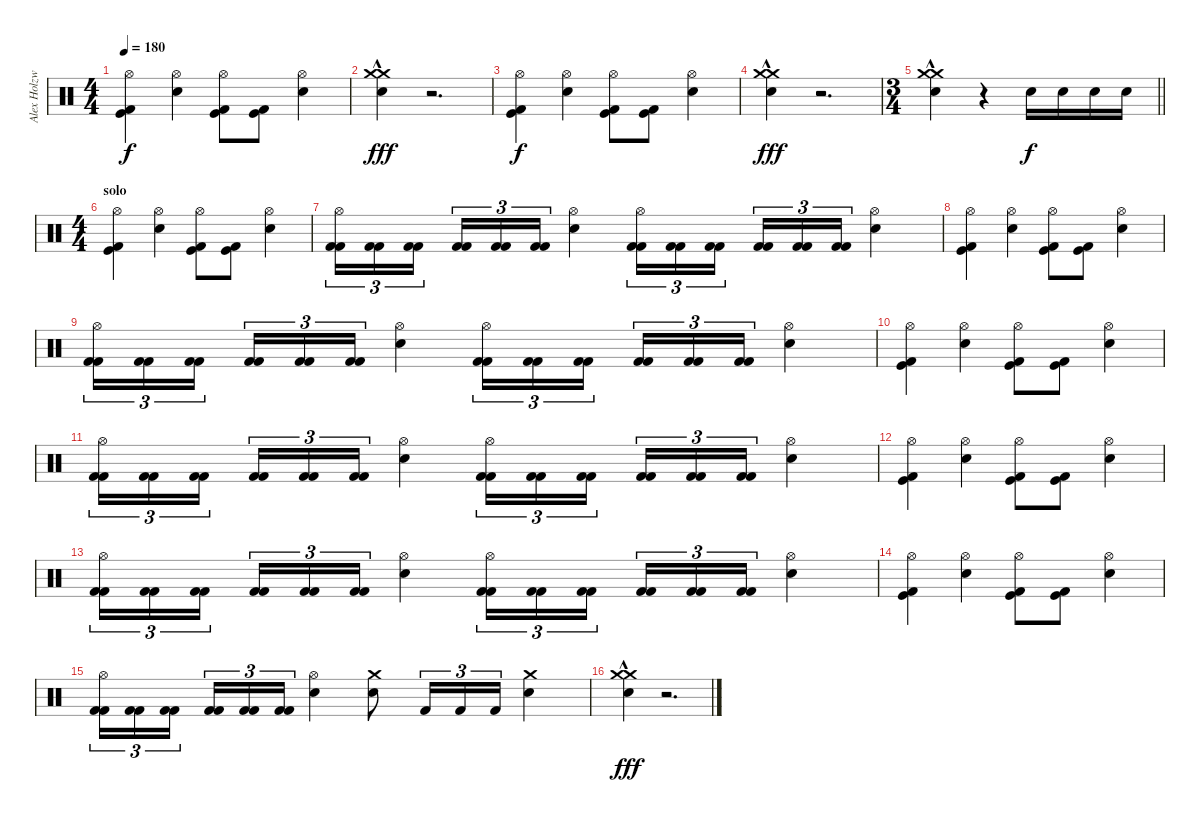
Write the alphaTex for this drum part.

\track ("Alex Holzwarth" "Alex Holzw") {instrument percussion}
\staff {score}
\articulation defaults
\ts (4 4)
\tempo 180
\clef neutral
\ks c
("Kick (hit)" "Kick (hit) 2" "Hi-Hat (open)").4{dy f volume 16} ("Snare (hit) 2" "Hi-Hat (open)").4 ("Kick (hit)" "Kick (hit) 2" "Hi-Hat (open)").8 ("Kick (hit)" "Kick (hit) 2").8 ("Snare (hit) 2" "Hi-Hat (open)").4 |
("Crash medium (hit)"{hac} "Snare (hit) 2" "Crash medium (hit)"{hac}).4{dy fff volume 16} r.2{d volume 0} |
("Kick (hit)" "Kick (hit) 2" "Hi-Hat (open)").4{dy f volume 16} ("Snare (hit) 2" "Hi-Hat (open)").4 ("Kick (hit)" "Kick (hit) 2" "Hi-Hat (open)").8 ("Kick (hit)" "Kick (hit) 2").8 ("Snare (hit) 2" "Hi-Hat (open)").4 |
("Crash medium (hit)"{hac} "Snare (hit) 2" "Crash medium (hit)"{hac}).4{dy fff volume 16} r.2{d volume 0} |
\ts (3 4)
\barLineRight lightlight
("Crash medium (hit)"{hac} "Snare (hit) 2" "Crash medium (hit)"{hac}).4{volume 16} r.4{volume 0} "Snare (hit) 2".16{dy f volume 16} "Snare (hit) 2".16 "Snare (hit) 2".16 "Snare (hit) 2".16 |
\ts (4 4)
\section ("" "solo")
("Kick (hit)" "Kick (hit) 2" "Hi-Hat (open)").4{volume 16} ("Snare (hit) 2" "Hi-Hat (open)").4 ("Kick (hit)" "Kick (hit) 2" "Hi-Hat (open)").8 ("Kick (hit)" "Kick (hit) 2").8 ("Snare (hit) 2" "Hi-Hat (open)").4 |
("Kick (hit) 2" "Kick (hit) 2" "Hi-Hat (open)").16{tu (3 2)} ("Kick (hit) 2" "Kick (hit) 2").16{tu (3 2)} ("Kick (hit) 2" "Kick (hit) 2").16{tu (3 2) beam splitsecondary} ("Kick (hit) 2" "Kick (hit) 2").16{tu (3 2)} ("Kick (hit) 2" "Kick (hit) 2").16{tu (3 2)} ("Kick (hit) 2" "Kick (hit) 2").16{tu (3 2)} ("Snare (hit) 2" "Hi-Hat (open)").4 ("Kick (hit) 2" "Kick (hit) 2" "Hi-Hat (open)").16{tu (3 2)} ("Kick (hit) 2" "Kick (hit) 2").16{tu (3 2)} ("Kick (hit) 2" "Kick (hit) 2").16{tu (3 2) beam splitsecondary} ("Kick (hit) 2" "Kick (hit) 2").16{tu (3 2)} ("Kick (hit) 2" "Kick (hit) 2").16{tu (3 2)} ("Kick (hit) 2" "Kick (hit) 2").16{tu (3 2)} ("Snare (hit) 2" "Hi-Hat (open)").4 |
("Kick (hit)" "Kick (hit) 2" "Hi-Hat (open)").4{volume 16} ("Snare (hit) 2" "Hi-Hat (open)").4 ("Kick (hit)" "Kick (hit) 2" "Hi-Hat (open)").8 ("Kick (hit)" "Kick (hit) 2").8 ("Snare (hit) 2" "Hi-Hat (open)").4 |
("Kick (hit) 2" "Kick (hit) 2" "Hi-Hat (open)").16{tu (3 2)} ("Kick (hit) 2" "Kick (hit) 2").16{tu (3 2)} ("Kick (hit) 2" "Kick (hit) 2").16{tu (3 2) beam splitsecondary} ("Kick (hit) 2" "Kick (hit) 2").16{tu (3 2)} ("Kick (hit) 2" "Kick (hit) 2").16{tu (3 2)} ("Kick (hit) 2" "Kick (hit) 2").16{tu (3 2)} ("Snare (hit) 2" "Hi-Hat (open)").4 ("Kick (hit) 2" "Kick (hit) 2" "Hi-Hat (open)").16{tu (3 2)} ("Kick (hit) 2" "Kick (hit) 2").16{tu (3 2)} ("Kick (hit) 2" "Kick (hit) 2").16{tu (3 2) beam splitsecondary} ("Kick (hit) 2" "Kick (hit) 2").16{tu (3 2)} ("Kick (hit) 2" "Kick (hit) 2").16{tu (3 2)} ("Kick (hit) 2" "Kick (hit) 2").16{tu (3 2)} ("Snare (hit) 2" "Hi-Hat (open)").4 |
("Kick (hit)" "Kick (hit) 2" "Hi-Hat (open)").4{volume 16} ("Snare (hit) 2" "Hi-Hat (open)").4 ("Kick (hit)" "Kick (hit) 2" "Hi-Hat (open)").8 ("Kick (hit)" "Kick (hit) 2").8 ("Snare (hit) 2" "Hi-Hat (open)").4 |
("Kick (hit) 2" "Kick (hit) 2" "Hi-Hat (open)").16{tu (3 2)} ("Kick (hit) 2" "Kick (hit) 2").16{tu (3 2)} ("Kick (hit) 2" "Kick (hit) 2").16{tu (3 2) beam splitsecondary} ("Kick (hit) 2" "Kick (hit) 2").16{tu (3 2)} ("Kick (hit) 2" "Kick (hit) 2").16{tu (3 2)} ("Kick (hit) 2" "Kick (hit) 2").16{tu (3 2)} ("Snare (hit) 2" "Hi-Hat (open)").4 ("Kick (hit) 2" "Kick (hit) 2" "Hi-Hat (open)").16{tu (3 2)} ("Kick (hit) 2" "Kick (hit) 2").16{tu (3 2)} ("Kick (hit) 2" "Kick (hit) 2").16{tu (3 2) beam splitsecondary} ("Kick (hit) 2" "Kick (hit) 2").16{tu (3 2)} ("Kick (hit) 2" "Kick (hit) 2").16{tu (3 2)} ("Kick (hit) 2" "Kick (hit) 2").16{tu (3 2)} ("Snare (hit) 2" "Hi-Hat (open)").4 |
("Kick (hit)" "Kick (hit) 2" "Hi-Hat (open)").4{volume 16} ("Snare (hit) 2" "Hi-Hat (open)").4 ("Kick (hit)" "Kick (hit) 2" "Hi-Hat (open)").8 ("Kick (hit)" "Kick (hit) 2").8 ("Snare (hit) 2" "Hi-Hat (open)").4 |
("Kick (hit) 2" "Kick (hit) 2" "Hi-Hat (open)").16{tu (3 2)} ("Kick (hit) 2" "Kick (hit) 2").16{tu (3 2)} ("Kick (hit) 2" "Kick (hit) 2").16{tu (3 2) beam splitsecondary} ("Kick (hit) 2" "Kick (hit) 2").16{tu (3 2)} ("Kick (hit) 2" "Kick (hit) 2").16{tu (3 2)} ("Kick (hit) 2" "Kick (hit) 2").16{tu (3 2)} ("Snare (hit) 2" "Hi-Hat (open)").4 ("Kick (hit) 2" "Kick (hit) 2" "Hi-Hat (open)").16{tu (3 2)} ("Kick (hit) 2" "Kick (hit) 2").16{tu (3 2)} ("Kick (hit) 2" "Kick (hit) 2").16{tu (3 2) beam splitsecondary} ("Kick (hit) 2" "Kick (hit) 2").16{tu (3 2)} ("Kick (hit) 2" "Kick (hit) 2").16{tu (3 2)} ("Kick (hit) 2" "Kick (hit) 2").16{tu (3 2)} ("Snare (hit) 2" "Hi-Hat (open)").4 |
("Kick (hit)" "Kick (hit) 2" "Hi-Hat (open)").4{volume 16} ("Snare (hit) 2" "Hi-Hat (open)").4 ("Kick (hit)" "Kick (hit) 2" "Hi-Hat (open)").8 ("Kick (hit)" "Kick (hit) 2").8 ("Snare (hit) 2" "Hi-Hat (open)").4 |
("Kick (hit) 2" "Kick (hit) 2" "Hi-Hat (open)").16{tu (3 2)} ("Kick (hit) 2" "Kick (hit) 2").16{tu (3 2)} ("Kick (hit) 2" "Kick (hit) 2").16{tu (3 2) beam splitsecondary} ("Kick (hit) 2" "Kick (hit) 2").16{tu (3 2)} ("Kick (hit) 2" "Kick (hit) 2").16{tu (3 2)} ("Kick (hit) 2" "Kick (hit) 2").16{tu (3 2)} ("Snare (hit) 2" "Hi-Hat (open)").4 ("Electric Snare (hit)" "Crash medium (hit)").8 "Kick (hit) 2".16{tu (3 2)} "Kick (hit) 2".16{tu (3 2)} "Kick (hit) 2".16{tu (3 2)} ("Electric Snare (hit)" "Crash medium (hit)").4 |
("Crash medium (hit)"{hac} "Snare (hit) 2" "Crash medium (hit)"{hac}).4{dy fff volume 16} r.2{d volume 0}
